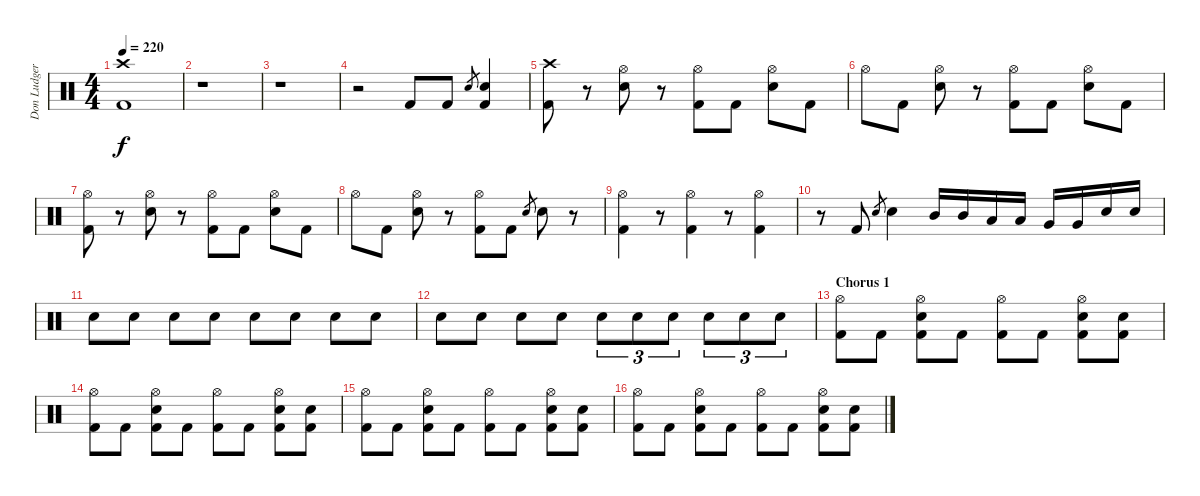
\track ("Don Ludger" "Don Ludger") {instrument percussion}
\staff {score}
\articulation defaults
\ts (4 4)
\tempo 220
\clef neutral
\ks c
("Crash high (hit)" "Kick (hit) 2").1{dy f} |
r.1 |
r.1 |
r.2 "Kick (hit) 2".8 "Kick (hit) 2".8 "Electric Snare (hit)".8{gr} ("Electric Snare (hit)" "Kick (hit) 2").4 |
("Crash high (hit)" "Kick (hit) 2").8 r.8 ("Hi-Hat (open)" "Electric Snare (hit)").8 r.8 ("Hi-Hat (open)" "Kick (hit) 2").8 "Kick (hit) 2".8 ("Hi-Hat (open)" "Electric Snare (hit)").8 "Kick (hit) 2".8 |
"Hi-Hat (open)".8 "Kick (hit) 2".8 ("Hi-Hat (open)" "Electric Snare (hit)").8 r.8 ("Hi-Hat (open)" "Kick (hit) 2").8 "Kick (hit) 2".8 ("Hi-Hat (open)" "Electric Snare (hit)").8 "Kick (hit) 2".8 |
("Hi-Hat (open)" "Kick (hit) 2").8 r.8 ("Hi-Hat (open)" "Electric Snare (hit)").8 r.8 ("Hi-Hat (open)" "Kick (hit) 2").8 "Kick (hit) 2".8 ("Hi-Hat (open)" "Electric Snare (hit)").8 "Kick (hit) 2".8 |
"Hi-Hat (open)".8 "Kick (hit) 2".8 ("Hi-Hat (open)" "Electric Snare (hit)").8 r.8 ("Hi-Hat (open)" "Kick (hit) 2").8 "Kick (hit) 2".8 "Electric Snare (hit)".8{gr} "Electric Snare (hit)".8 r.8 |
("Hi-Hat (open)" "Kick (hit) 2").4 r.8 ("Hi-Hat (open)" "Kick (hit) 2").4 r.8 ("Hi-Hat (open)" "Kick (hit) 2").4 |
r.8 "Kick (hit) 2".8 "Electric Snare (hit)".8{gr} "Electric Snare (hit)".4 "Mid Tom (hit)".16 "Mid Tom (hit)".16 "Low Tom (hit)".16 "Low Tom (hit)".16 "Very Low Tom (hit)".16 "Very Low Tom (hit)".16 "Electric Snare (hit)".16 "Electric Snare (hit)".16 |
"Electric Snare (hit)".8 "Electric Snare (hit)".8 "Electric Snare (hit)".8 "Electric Snare (hit)".8 "Electric Snare (hit)".8 "Electric Snare (hit)".8 "Electric Snare (hit)".8 "Electric Snare (hit)".8 |
"Electric Snare (hit)".8 "Electric Snare (hit)".8 "Electric Snare (hit)".8 "Electric Snare (hit)".8 "Electric Snare (hit)".8{tu (3 2)} "Electric Snare (hit)".8{tu (3 2)} "Electric Snare (hit)".8{tu (3 2)} "Electric Snare (hit)".8{tu (3 2)} "Electric Snare (hit)".8{tu (3 2)} "Electric Snare (hit)".8{tu (3 2)} |
\section ("" "Chorus 1")
("Hi-Hat (open)" "Kick (hit) 2").8 "Kick (hit) 2".8 ("Hi-Hat (open)" "Electric Snare (hit)" "Kick (hit) 2").8 "Kick (hit) 2".8 ("Hi-Hat (open)" "Kick (hit) 2").8 "Kick (hit) 2".8 ("Hi-Hat (open)" "Electric Snare (hit)" "Kick (hit) 2").8 ("Electric Snare (hit)" "Kick (hit) 2").8 |
("Hi-Hat (open)" "Kick (hit) 2").8 "Kick (hit) 2".8 ("Hi-Hat (open)" "Electric Snare (hit)" "Kick (hit) 2").8 "Kick (hit) 2".8 ("Hi-Hat (open)" "Kick (hit) 2").8 "Kick (hit) 2".8 ("Hi-Hat (open)" "Electric Snare (hit)" "Kick (hit) 2").8 ("Electric Snare (hit)" "Kick (hit) 2").8 |
("Hi-Hat (open)" "Kick (hit) 2").8 "Kick (hit) 2".8 ("Hi-Hat (open)" "Electric Snare (hit)" "Kick (hit) 2").8 "Kick (hit) 2".8 ("Hi-Hat (open)" "Kick (hit) 2").8 "Kick (hit) 2".8 ("Hi-Hat (open)" "Electric Snare (hit)" "Kick (hit) 2").8 ("Electric Snare (hit)" "Kick (hit) 2").8 |
("Hi-Hat (open)" "Kick (hit) 2").8 "Kick (hit) 2".8 ("Hi-Hat (open)" "Electric Snare (hit)" "Kick (hit) 2").8 "Kick (hit) 2".8 ("Hi-Hat (open)" "Kick (hit) 2").8 "Kick (hit) 2".8 ("Hi-Hat (open)" "Electric Snare (hit)" "Kick (hit) 2").8 ("Electric Snare (hit)" "Kick (hit) 2").8
